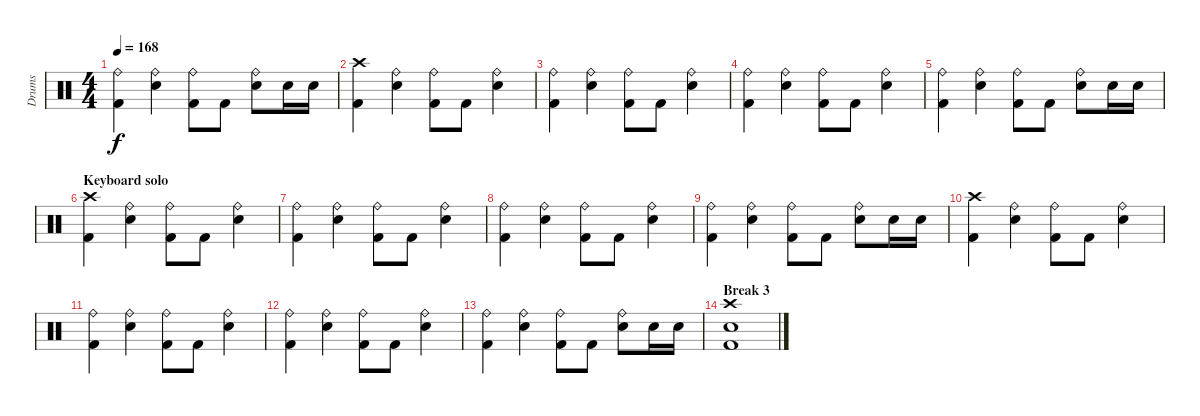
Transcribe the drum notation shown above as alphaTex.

\track ("Drums" "Drums") {instrument percussion}
\staff {score}
\articulation defaults
\ts (4 4)
\tempo 168
\clef neutral
\ks c
("Ride (bell)" "Kick (hit) 2").4{dy f} ("Ride (bell)" "Electric Snare (hit)").4 ("Ride (bell)" "Kick (hit) 2").8 "Kick (hit) 2".8 ("Ride (bell)" "Electric Snare (hit)").8 "Electric Snare (hit)".16 "Electric Snare (hit)".16 |
("Crash high (hit)" "Kick (hit) 2").4 ("Ride (bell)" "Electric Snare (hit)").4 ("Ride (bell)" "Kick (hit) 2").8 "Kick (hit) 2".8 ("Ride (bell)" "Electric Snare (hit)").4 |
("Ride (bell)" "Kick (hit) 2").4 ("Ride (bell)" "Electric Snare (hit)").4 ("Ride (bell)" "Kick (hit) 2").8 "Kick (hit) 2".8 ("Ride (bell)" "Electric Snare (hit)").4 |
("Ride (bell)" "Kick (hit) 2").4 ("Ride (bell)" "Electric Snare (hit)").4 ("Ride (bell)" "Kick (hit) 2").8 "Kick (hit) 2".8 ("Ride (bell)" "Electric Snare (hit)").4 |
("Ride (bell)" "Kick (hit) 2").4 ("Ride (bell)" "Electric Snare (hit)").4 ("Ride (bell)" "Kick (hit) 2").8 "Kick (hit) 2".8 ("Ride (bell)" "Electric Snare (hit)").8 "Electric Snare (hit)".16 "Electric Snare (hit)".16 |
\section ("" "Keyboard solo")
("Crash high (hit)" "Kick (hit) 2").4 ("Ride (bell)" "Electric Snare (hit)").4 ("Ride (bell)" "Kick (hit) 2").8 "Kick (hit) 2".8 ("Ride (bell)" "Electric Snare (hit)").4 |
("Ride (bell)" "Kick (hit) 2").4 ("Ride (bell)" "Electric Snare (hit)").4 ("Ride (bell)" "Kick (hit) 2").8 "Kick (hit) 2".8 ("Ride (bell)" "Electric Snare (hit)").4 |
("Ride (bell)" "Kick (hit) 2").4 ("Ride (bell)" "Electric Snare (hit)").4 ("Ride (bell)" "Kick (hit) 2").8 "Kick (hit) 2".8 ("Ride (bell)" "Electric Snare (hit)").4 |
("Ride (bell)" "Kick (hit) 2").4 ("Ride (bell)" "Electric Snare (hit)").4 ("Ride (bell)" "Kick (hit) 2").8 "Kick (hit) 2".8 ("Ride (bell)" "Electric Snare (hit)").8 "Electric Snare (hit)".16 "Electric Snare (hit)".16 |
("Crash high (hit)" "Kick (hit) 2").4 ("Ride (bell)" "Electric Snare (hit)").4 ("Ride (bell)" "Kick (hit) 2").8 "Kick (hit) 2".8 ("Ride (bell)" "Electric Snare (hit)").4 |
("Ride (bell)" "Kick (hit) 2").4 ("Ride (bell)" "Electric Snare (hit)").4 ("Ride (bell)" "Kick (hit) 2").8 "Kick (hit) 2".8 ("Ride (bell)" "Electric Snare (hit)").4 |
("Ride (bell)" "Kick (hit) 2").4 ("Ride (bell)" "Electric Snare (hit)").4 ("Ride (bell)" "Kick (hit) 2").8 "Kick (hit) 2".8 ("Ride (bell)" "Electric Snare (hit)").4 |
("Ride (bell)" "Kick (hit) 2").4 ("Ride (bell)" "Electric Snare (hit)").4 ("Ride (bell)" "Kick (hit) 2").8 "Kick (hit) 2".8 ("Ride (bell)" "Electric Snare (hit)").8 "Electric Snare (hit)".16 "Electric Snare (hit)".16 |
\section ("" "Break 3")
("Crash high (hit)" "Kick (hit) 2" "Electric Snare (hit)").1
